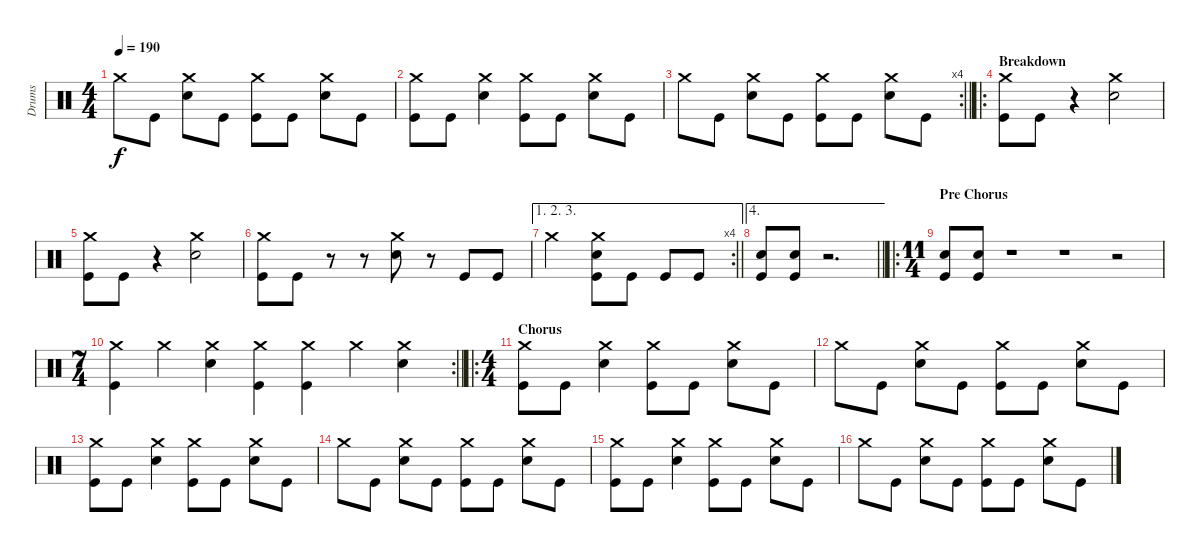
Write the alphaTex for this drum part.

\track ("Drums" "Drums") {instrument percussion}
\staff {score}
\articulation defaults
\ts (4 4)
\tempo 190
\clef neutral
\ks c "Crash medium (hit)".8{dy f} "Kick (hit)".8
("Crash medium (hit)" "Snare (hit) 2").8 "Kick (hit)".8 ("Crash medium (hit)" "Kick (hit)").8 "Kick (hit)".8 ("Crash medium (hit)" "Snare (hit) 2").8 "Kick (hit)".8 |
("Crash medium (hit)" "Kick (hit)").8 "Kick (hit)".8 ("Crash medium (hit)" "Snare (hit) 2").4 ("Crash medium (hit)" "Kick (hit)").8 "Kick (hit)".8 ("Crash medium (hit)" "Snare (hit) 2").8 "Kick (hit)".8 |
\rc 4
\barLineRight lightlight "Crash medium (hit)".8 "Kick (hit)".8
("Crash medium (hit)" "Snare (hit) 2").8 "Kick (hit)".8 ("Crash medium (hit)" "Kick (hit)").8 "Kick (hit)".8 ("Crash medium (hit)" "Snare (hit) 2").8 "Kick (hit)".8 |
\ro
\section ("" "Breakdown")
("Crash medium (hit)" "Kick (hit)").8 "Kick (hit)".8 r.4 ("Crash medium (hit)" "Snare (hit) 2").2 |
("Crash medium (hit)" "Kick (hit)").8 "Kick (hit)".8 r.4 ("Crash medium (hit)" "Snare (hit) 2").2 |
("Crash medium (hit)" "Kick (hit)").8 "Kick (hit)".8 r.8 r.8 ("Crash medium (hit)" "Snare (hit) 2").8 r.8 "Kick (hit)".8 "Kick (hit)".8 |
\ae (1 2 3)
\rc 4
\barLineRight lightlight "Crash medium (hit)".2
("Crash medium (hit)" "Snare (hit) 2" "Kick (hit)").8 "Kick (hit)".8 "Kick (hit)".8 "Kick (hit)".8 |
\ae 4
\barLineRight lightlight
("Snare (hit) 2" "Kick (hit)").8 ("Snare (hit) 2" "Kick (hit)").8 r.2{d} |
\ro
\ts (11 4)
\section ("" "Pre Chorus")
("Snare (hit) 2" "Kick (hit)").8 ("Snare (hit) 2" "Kick (hit)").8 r.1 r.1 r.2 |
\rc 2
\ts (7 4)
\barLineRight lightlight
("Crash medium (hit)" "Kick (hit)").4 "Crash medium (hit)".4 ("Crash medium (hit)" "Snare (hit) 2").4 ("Crash medium (hit)" "Kick (hit)").4 ("Crash medium (hit)" "Kick (hit)").4 "Crash medium (hit)".4 ("Crash medium (hit)" "Snare (hit) 2").4 |
\ro
\ts (4 4)
\section ("" "Chorus")
("Crash medium (hit)" "Kick (hit)").8 "Kick (hit)".8 ("Crash medium (hit)" "Snare (hit) 2").4 ("Crash medium (hit)" "Kick (hit)").8 "Kick (hit)".8 ("Crash medium (hit)" "Snare (hit) 2").8 "Kick (hit)".8 |
"Crash medium (hit)".8 "Kick (hit)".8 ("Crash medium (hit)" "Snare (hit) 2").8 "Kick (hit)".8 ("Crash medium (hit)" "Kick (hit)").8 "Kick (hit)".8 ("Crash medium (hit)" "Snare (hit) 2").8 "Kick (hit)".8 |
("Crash medium (hit)" "Kick (hit)").8 "Kick (hit)".8 ("Crash medium (hit)" "Snare (hit) 2").4 ("Crash medium (hit)" "Kick (hit)").8 "Kick (hit)".8 ("Crash medium (hit)" "Snare (hit) 2").8 "Kick (hit)".8 |
"Crash medium (hit)".8 "Kick (hit)".8 ("Crash medium (hit)" "Snare (hit) 2").8 "Kick (hit)".8 ("Crash medium (hit)" "Kick (hit)").8 "Kick (hit)".8 ("Crash medium (hit)" "Snare (hit) 2").8 "Kick (hit)".8 |
("Crash medium (hit)" "Kick (hit)").8 "Kick (hit)".8 ("Crash medium (hit)" "Snare (hit) 2").4 ("Crash medium (hit)" "Kick (hit)").8 "Kick (hit)".8 ("Crash medium (hit)" "Snare (hit) 2").8 "Kick (hit)".8 |
"Crash medium (hit)".8 "Kick (hit)".8 ("Crash medium (hit)" "Snare (hit) 2").8 "Kick (hit)".8 ("Crash medium (hit)" "Kick (hit)").8 "Kick (hit)".8 ("Crash medium (hit)" "Snare (hit) 2").8 "Kick (hit)".8
